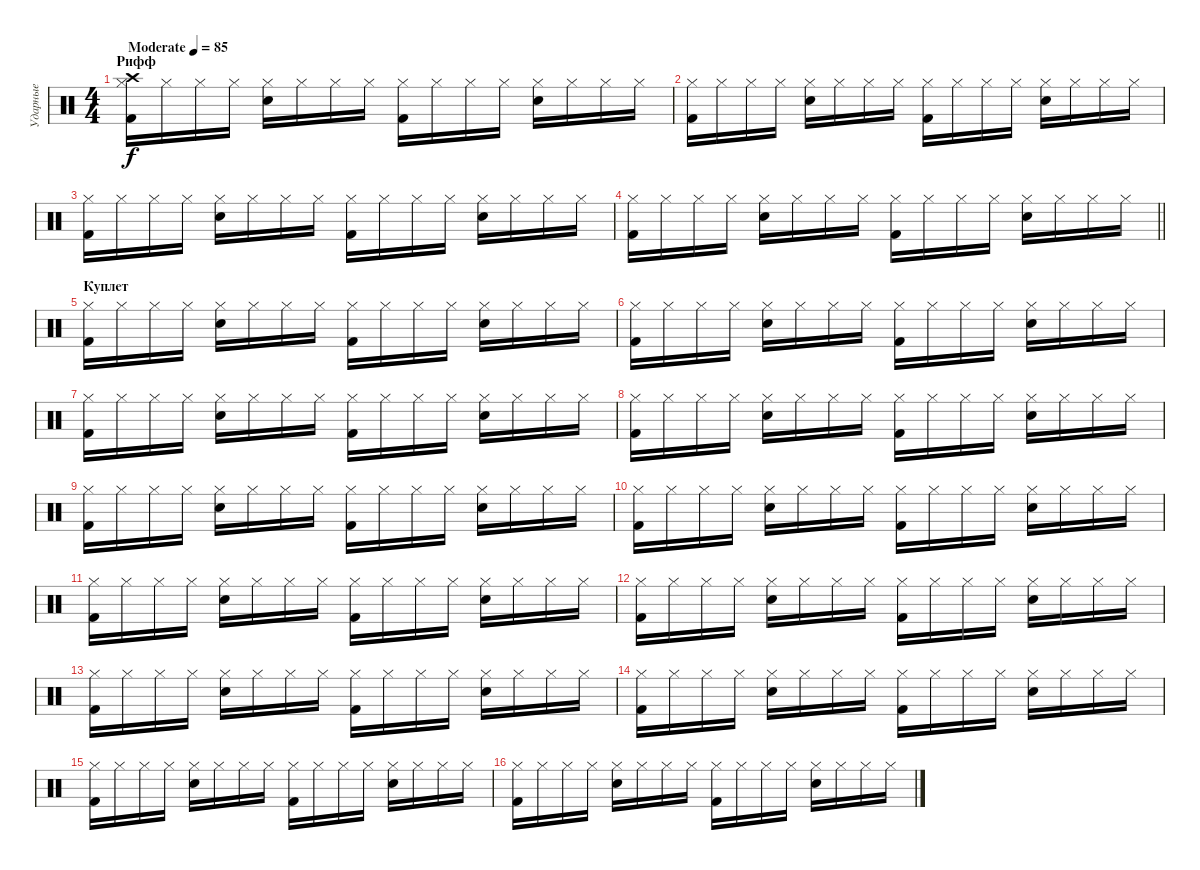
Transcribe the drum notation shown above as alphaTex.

\track ("Ударные" "Ударные") {instrument percussion}
\staff {score}
\articulation defaults
\ts (4 4)
\section ("" "Рифф")
\tempo (85 "Moderate")
\clef neutral
\ks c
("Kick (hit) 2" "Hi-Hat (closed)" "Crash high (hit)").16{dy f} "Hi-Hat (closed)".16 "Hi-Hat (closed)".16 "Hi-Hat (closed)".16 ("Snare (hit) 2" "Hi-Hat (closed)").16 "Hi-Hat (closed)".16 "Hi-Hat (closed)".16 "Hi-Hat (closed)".16 ("Kick (hit) 2" "Hi-Hat (closed)").16 "Hi-Hat (closed)".16 "Hi-Hat (closed)".16 "Hi-Hat (closed)".16 ("Snare (hit) 2" "Hi-Hat (closed)").16 "Hi-Hat (closed)".16 "Hi-Hat (closed)".16 "Hi-Hat (closed)".16 |
("Kick (hit) 2" "Hi-Hat (closed)").16 "Hi-Hat (closed)".16 "Hi-Hat (closed)".16 "Hi-Hat (closed)".16 ("Snare (hit) 2" "Hi-Hat (closed)").16 "Hi-Hat (closed)".16 "Hi-Hat (closed)".16 "Hi-Hat (closed)".16 ("Kick (hit) 2" "Hi-Hat (closed)").16 "Hi-Hat (closed)".16 "Hi-Hat (closed)".16 "Hi-Hat (closed)".16 ("Snare (hit) 2" "Hi-Hat (closed)").16 "Hi-Hat (closed)".16 "Hi-Hat (closed)".16 "Hi-Hat (closed)".16 |
("Kick (hit) 2" "Hi-Hat (closed)").16 "Hi-Hat (closed)".16 "Hi-Hat (closed)".16 "Hi-Hat (closed)".16 ("Snare (hit) 2" "Hi-Hat (closed)").16 "Hi-Hat (closed)".16 "Hi-Hat (closed)".16 "Hi-Hat (closed)".16 ("Kick (hit) 2" "Hi-Hat (closed)").16 "Hi-Hat (closed)".16 "Hi-Hat (closed)".16 "Hi-Hat (closed)".16 ("Snare (hit) 2" "Hi-Hat (closed)").16 "Hi-Hat (closed)".16 "Hi-Hat (closed)".16 "Hi-Hat (closed)".16 |
\barLineRight lightlight
("Kick (hit) 2" "Hi-Hat (closed)").16 "Hi-Hat (closed)".16 "Hi-Hat (closed)".16 "Hi-Hat (closed)".16 ("Snare (hit) 2" "Hi-Hat (closed)").16 "Hi-Hat (closed)".16 "Hi-Hat (closed)".16 "Hi-Hat (closed)".16 ("Kick (hit) 2" "Hi-Hat (closed)").16 "Hi-Hat (closed)".16 "Hi-Hat (closed)".16 "Hi-Hat (closed)".16 ("Snare (hit) 2" "Hi-Hat (closed)").16 "Hi-Hat (closed)".16 "Hi-Hat (closed)".16 "Hi-Hat (closed)".16 |
\section ("" "Куплет")
("Kick (hit) 2" "Hi-Hat (closed)").16 "Hi-Hat (closed)".16 "Hi-Hat (closed)".16 "Hi-Hat (closed)".16 ("Snare (hit) 2" "Hi-Hat (closed)").16 "Hi-Hat (closed)".16 "Hi-Hat (closed)".16 "Hi-Hat (closed)".16 ("Kick (hit) 2" "Hi-Hat (closed)").16 "Hi-Hat (closed)".16 "Hi-Hat (closed)".16 "Hi-Hat (closed)".16 ("Snare (hit) 2" "Hi-Hat (closed)").16 "Hi-Hat (closed)".16 "Hi-Hat (closed)".16 "Hi-Hat (closed)".16 |
("Kick (hit) 2" "Hi-Hat (closed)").16 "Hi-Hat (closed)".16 "Hi-Hat (closed)".16 "Hi-Hat (closed)".16 ("Snare (hit) 2" "Hi-Hat (closed)").16 "Hi-Hat (closed)".16 "Hi-Hat (closed)".16 "Hi-Hat (closed)".16 ("Kick (hit) 2" "Hi-Hat (closed)").16 "Hi-Hat (closed)".16 "Hi-Hat (closed)".16 "Hi-Hat (closed)".16 ("Snare (hit) 2" "Hi-Hat (closed)").16 "Hi-Hat (closed)".16 "Hi-Hat (closed)".16 "Hi-Hat (closed)".16 |
("Kick (hit) 2" "Hi-Hat (closed)").16 "Hi-Hat (closed)".16 "Hi-Hat (closed)".16 "Hi-Hat (closed)".16 ("Snare (hit) 2" "Hi-Hat (closed)").16 "Hi-Hat (closed)".16 "Hi-Hat (closed)".16 "Hi-Hat (closed)".16 ("Kick (hit) 2" "Hi-Hat (closed)").16 "Hi-Hat (closed)".16 "Hi-Hat (closed)".16 "Hi-Hat (closed)".16 ("Snare (hit) 2" "Hi-Hat (closed)").16 "Hi-Hat (closed)".16 "Hi-Hat (closed)".16 "Hi-Hat (closed)".16 |
("Kick (hit) 2" "Hi-Hat (closed)").16 "Hi-Hat (closed)".16 "Hi-Hat (closed)".16 "Hi-Hat (closed)".16 ("Snare (hit) 2" "Hi-Hat (closed)").16 "Hi-Hat (closed)".16 "Hi-Hat (closed)".16 "Hi-Hat (closed)".16 ("Kick (hit) 2" "Hi-Hat (closed)").16 "Hi-Hat (closed)".16 "Hi-Hat (closed)".16 "Hi-Hat (closed)".16 ("Snare (hit) 2" "Hi-Hat (closed)").16 "Hi-Hat (closed)".16 "Hi-Hat (closed)".16 "Hi-Hat (closed)".16 |
("Kick (hit) 2" "Hi-Hat (closed)").16 "Hi-Hat (closed)".16 "Hi-Hat (closed)".16 "Hi-Hat (closed)".16 ("Snare (hit) 2" "Hi-Hat (closed)").16 "Hi-Hat (closed)".16 "Hi-Hat (closed)".16 "Hi-Hat (closed)".16 ("Kick (hit) 2" "Hi-Hat (closed)").16 "Hi-Hat (closed)".16 "Hi-Hat (closed)".16 "Hi-Hat (closed)".16 ("Snare (hit) 2" "Hi-Hat (closed)").16 "Hi-Hat (closed)".16 "Hi-Hat (closed)".16 "Hi-Hat (closed)".16 |
("Kick (hit) 2" "Hi-Hat (closed)").16 "Hi-Hat (closed)".16 "Hi-Hat (closed)".16 "Hi-Hat (closed)".16 ("Snare (hit) 2" "Hi-Hat (closed)").16 "Hi-Hat (closed)".16 "Hi-Hat (closed)".16 "Hi-Hat (closed)".16 ("Kick (hit) 2" "Hi-Hat (closed)").16 "Hi-Hat (closed)".16 "Hi-Hat (closed)".16 "Hi-Hat (closed)".16 ("Snare (hit) 2" "Hi-Hat (closed)").16 "Hi-Hat (closed)".16 "Hi-Hat (closed)".16 "Hi-Hat (closed)".16 |
("Kick (hit) 2" "Hi-Hat (closed)").16 "Hi-Hat (closed)".16 "Hi-Hat (closed)".16 "Hi-Hat (closed)".16 ("Snare (hit) 2" "Hi-Hat (closed)").16 "Hi-Hat (closed)".16 "Hi-Hat (closed)".16 "Hi-Hat (closed)".16 ("Kick (hit) 2" "Hi-Hat (closed)").16 "Hi-Hat (closed)".16 "Hi-Hat (closed)".16 "Hi-Hat (closed)".16 ("Snare (hit) 2" "Hi-Hat (closed)").16 "Hi-Hat (closed)".16 "Hi-Hat (closed)".16 "Hi-Hat (closed)".16 |
("Kick (hit) 2" "Hi-Hat (closed)").16 "Hi-Hat (closed)".16 "Hi-Hat (closed)".16 "Hi-Hat (closed)".16 ("Snare (hit) 2" "Hi-Hat (closed)").16 "Hi-Hat (closed)".16 "Hi-Hat (closed)".16 "Hi-Hat (closed)".16 ("Kick (hit) 2" "Hi-Hat (closed)").16 "Hi-Hat (closed)".16 "Hi-Hat (closed)".16 "Hi-Hat (closed)".16 ("Snare (hit) 2" "Hi-Hat (closed)").16 "Hi-Hat (closed)".16 "Hi-Hat (closed)".16 "Hi-Hat (closed)".16 |
("Kick (hit) 2" "Hi-Hat (closed)").16 "Hi-Hat (closed)".16 "Hi-Hat (closed)".16 "Hi-Hat (closed)".16 ("Snare (hit) 2" "Hi-Hat (closed)").16 "Hi-Hat (closed)".16 "Hi-Hat (closed)".16 "Hi-Hat (closed)".16 ("Kick (hit) 2" "Hi-Hat (closed)").16 "Hi-Hat (closed)".16 "Hi-Hat (closed)".16 "Hi-Hat (closed)".16 ("Snare (hit) 2" "Hi-Hat (closed)").16 "Hi-Hat (closed)".16 "Hi-Hat (closed)".16 "Hi-Hat (closed)".16 |
("Kick (hit) 2" "Hi-Hat (closed)").16 "Hi-Hat (closed)".16 "Hi-Hat (closed)".16 "Hi-Hat (closed)".16 ("Snare (hit) 2" "Hi-Hat (closed)").16 "Hi-Hat (closed)".16 "Hi-Hat (closed)".16 "Hi-Hat (closed)".16 ("Kick (hit) 2" "Hi-Hat (closed)").16 "Hi-Hat (closed)".16 "Hi-Hat (closed)".16 "Hi-Hat (closed)".16 ("Snare (hit) 2" "Hi-Hat (closed)").16 "Hi-Hat (closed)".16 "Hi-Hat (closed)".16 "Hi-Hat (closed)".16 |
("Kick (hit) 2" "Hi-Hat (closed)").16 "Hi-Hat (closed)".16 "Hi-Hat (closed)".16 "Hi-Hat (closed)".16 ("Snare (hit) 2" "Hi-Hat (closed)").16 "Hi-Hat (closed)".16 "Hi-Hat (closed)".16 "Hi-Hat (closed)".16 ("Kick (hit) 2" "Hi-Hat (closed)").16 "Hi-Hat (closed)".16 "Hi-Hat (closed)".16 "Hi-Hat (closed)".16 ("Snare (hit) 2" "Hi-Hat (closed)").16 "Hi-Hat (closed)".16 "Hi-Hat (closed)".16 "Hi-Hat (closed)".16 |
("Kick (hit) 2" "Hi-Hat (closed)").16 "Hi-Hat (closed)".16 "Hi-Hat (closed)".16 "Hi-Hat (closed)".16 ("Snare (hit) 2" "Hi-Hat (closed)").16 "Hi-Hat (closed)".16 "Hi-Hat (closed)".16 "Hi-Hat (closed)".16 ("Kick (hit) 2" "Hi-Hat (closed)").16 "Hi-Hat (closed)".16 "Hi-Hat (closed)".16 "Hi-Hat (closed)".16 ("Snare (hit) 2" "Hi-Hat (closed)").16 "Hi-Hat (closed)".16 "Hi-Hat (closed)".16 "Hi-Hat (closed)".16
